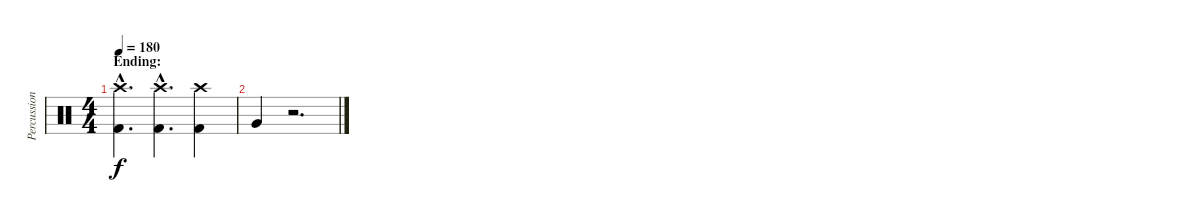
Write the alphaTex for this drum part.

\track ("Percussion" "Percussion") {instrument percussion}
\staff {score}
\articulation defaults
\ts (4 4)
\section ("" "Ending:")
\tempo 180
\clef neutral
\ks c
("Crash high (hit)"{hac} "Kick (hit) 2"{hac}).4{d dy f} ("Crash high (hit)"{hac} "Kick (hit) 2"{hac}).4{d} ("Crash high (hit)" "Kick (hit) 2").4 |
"Very Low Tom (hit)".4 r.2{d}
